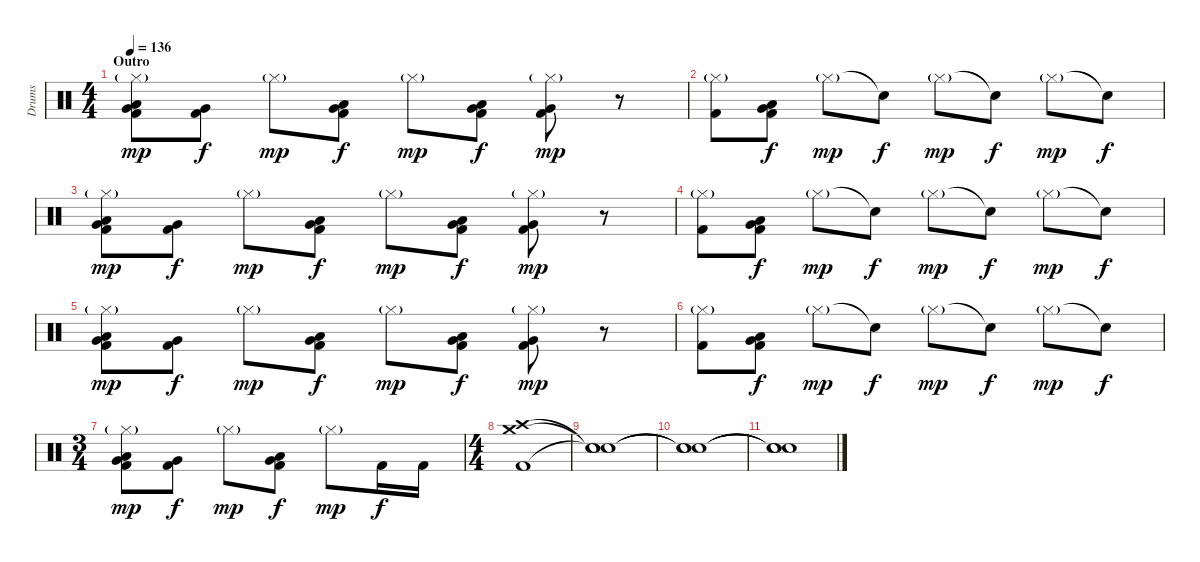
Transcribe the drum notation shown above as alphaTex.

\track ("Drums" "Drums") {instrument percussion}
\staff {score}
\articulation defaults
\ts (4 4)
\section ("" "Outro")
\tempo 136
\clef neutral
\ks c
("Kick (hit) 2" "Low Tom (hit)" "Very Low Tom (hit)" "Hi-Hat (closed)"{g}).8{dy mp} ("Kick (hit) 2" "Very Low Tom (hit)").8{dy f} "Hi-Hat (closed)"{g}.8{dy mp} ("Kick (hit) 2" "Low Tom (hit)" "Very Low Tom (hit)").8{dy f} "Hi-Hat (closed)"{g}.8{dy mp} ("Kick (hit) 2" "Low Tom (hit)" "Very Low Tom (hit)").8{dy f} ("Kick (hit) 2" "Very Low Tom (hit)" "Hi-Hat (closed)"{g}).8{dy mp} r.8 |
("Kick (hit) 2" "Hi-Hat (closed)"{g}).8 ("Kick (hit) 2" "Low Tom (hit)" "Very Low Tom (hit)").8{dy f} "Hi-Hat (closed)"{g}.8{dy mp} "Snare (hit)"{t}.8{dy f} "Hi-Hat (closed)"{g}.8{dy mp} "Snare (hit)"{t}.8{dy f} "Hi-Hat (closed)"{g}.8{dy mp} "Snare (hit)"{t}.8{dy f} |
("Kick (hit) 2" "Low Tom (hit)" "Very Low Tom (hit)" "Hi-Hat (closed)"{g}).8{dy mp} ("Kick (hit) 2" "Very Low Tom (hit)").8{dy f} "Hi-Hat (closed)"{g}.8{dy mp} ("Kick (hit) 2" "Low Tom (hit)" "Very Low Tom (hit)").8{dy f} "Hi-Hat (closed)"{g}.8{dy mp} ("Kick (hit) 2" "Low Tom (hit)" "Very Low Tom (hit)").8{dy f} ("Kick (hit) 2" "Very Low Tom (hit)" "Hi-Hat (closed)"{g}).8{dy mp} r.8 |
("Kick (hit) 2" "Hi-Hat (closed)"{g}).8 ("Kick (hit) 2" "Low Tom (hit)" "Very Low Tom (hit)").8{dy f} "Hi-Hat (closed)"{g}.8{dy mp} "Snare (hit)"{t}.8{dy f} "Hi-Hat (closed)"{g}.8{dy mp} "Snare (hit)"{t}.8{dy f} "Hi-Hat (closed)"{g}.8{dy mp} "Snare (hit)"{t}.8{dy f} |
("Kick (hit) 2" "Low Tom (hit)" "Very Low Tom (hit)" "Hi-Hat (closed)"{g}).8{dy mp} ("Kick (hit) 2" "Very Low Tom (hit)").8{dy f} "Hi-Hat (closed)"{g}.8{dy mp} ("Kick (hit) 2" "Low Tom (hit)" "Very Low Tom (hit)").8{dy f} "Hi-Hat (closed)"{g}.8{dy mp} ("Kick (hit) 2" "Low Tom (hit)" "Very Low Tom (hit)").8{dy f} ("Kick (hit) 2" "Very Low Tom (hit)" "Hi-Hat (closed)"{g}).8{dy mp} r.8 |
("Kick (hit) 2" "Hi-Hat (closed)"{g}).8 ("Kick (hit) 2" "Low Tom (hit)" "Very Low Tom (hit)").8{dy f} "Hi-Hat (closed)"{g}.8{dy mp} "Snare (hit)"{t}.8{dy f} "Hi-Hat (closed)"{g}.8{dy mp} "Snare (hit)"{t}.8{dy f} "Hi-Hat (closed)"{g}.8{dy mp} "Snare (hit)"{t}.8{dy f} |
\ts (3 4)
("Kick (hit) 2" "Low Tom (hit)" "Very Low Tom (hit)" "Hi-Hat (closed)"{g}).8{dy mp} ("Kick (hit) 2" "Very Low Tom (hit)").8{dy f} "Hi-Hat (closed)"{g}.8{dy mp} ("Kick (hit) 2" "Low Tom (hit)" "Very Low Tom (hit)").8{dy f} "Hi-Hat (closed)"{g}.8{dy mp} "Kick (hit) 2".16{dy f} "Kick (hit) 2".16 |
\ts (4 4)
("Crash high (hit)" "Crash medium (hit)" "Kick (hit) 2").1 |
("Snare (hit)"{t} "Snare (hit)"{t} "Snare (hit)"{t}).1 |
("Snare (hit)"{t} "Snare (hit)"{t} "Snare (hit)"{t}).1 |
("Snare (hit)"{t} "Snare (hit)"{t} "Snare (hit)"{t}).1
